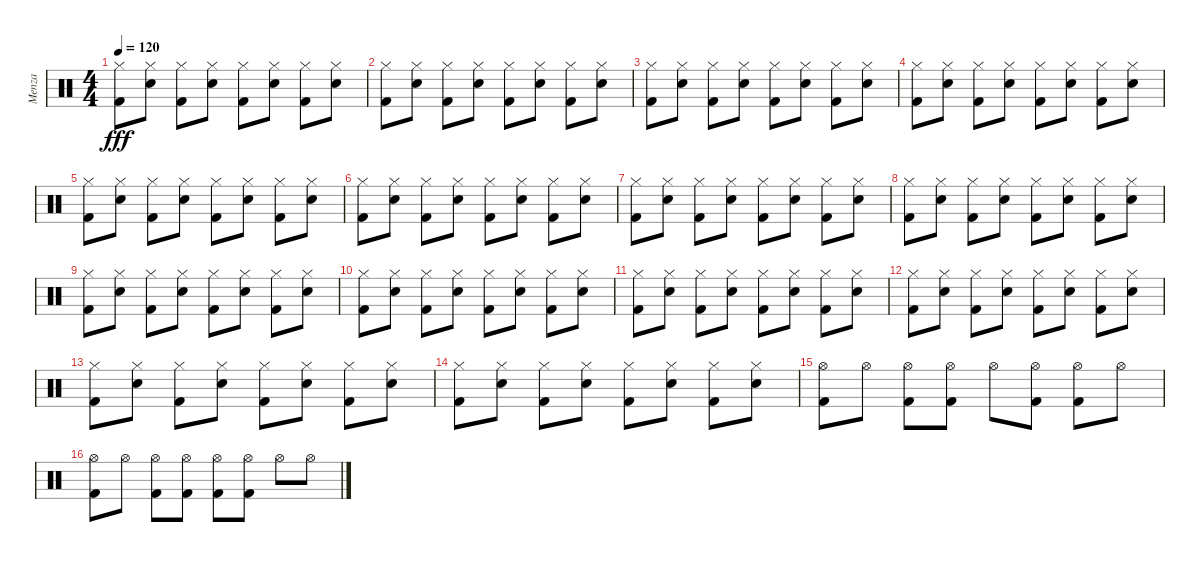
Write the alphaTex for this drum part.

\track ("Menza" "Menza") {instrument percussion}
\staff {score}
\articulation defaults
\ts (4 4)
\tempo 120
\clef neutral
\ks c
("Hi-Hat (closed)" "Kick (hit) 2").8{dy fff} ("Hi-Hat (closed)" "Snare (hit) 2").8 ("Hi-Hat (closed)" "Kick (hit) 2").8 ("Hi-Hat (closed)" "Snare (hit) 2").8 ("Hi-Hat (closed)" "Kick (hit) 2").8 ("Hi-Hat (closed)" "Snare (hit) 2").8 ("Hi-Hat (closed)" "Kick (hit) 2").8 ("Hi-Hat (closed)" "Snare (hit) 2").8 |
("Hi-Hat (closed)" "Kick (hit) 2").8 ("Hi-Hat (closed)" "Snare (hit) 2").8 ("Hi-Hat (closed)" "Kick (hit) 2").8 ("Hi-Hat (closed)" "Snare (hit) 2").8 ("Hi-Hat (closed)" "Kick (hit) 2").8 ("Hi-Hat (closed)" "Snare (hit) 2").8 ("Hi-Hat (closed)" "Kick (hit) 2").8 ("Hi-Hat (closed)" "Snare (hit) 2").8 |
("Hi-Hat (closed)" "Kick (hit) 2").8 ("Hi-Hat (closed)" "Snare (hit) 2").8 ("Hi-Hat (closed)" "Kick (hit) 2").8 ("Hi-Hat (closed)" "Snare (hit) 2").8 ("Hi-Hat (closed)" "Kick (hit) 2").8 ("Hi-Hat (closed)" "Snare (hit) 2").8 ("Hi-Hat (closed)" "Kick (hit) 2").8 ("Hi-Hat (closed)" "Snare (hit) 2").8 |
("Hi-Hat (closed)" "Kick (hit) 2").8 ("Hi-Hat (closed)" "Snare (hit) 2").8 ("Hi-Hat (closed)" "Kick (hit) 2").8 ("Hi-Hat (closed)" "Snare (hit) 2").8 ("Hi-Hat (closed)" "Kick (hit) 2").8 ("Hi-Hat (closed)" "Snare (hit) 2").8 ("Hi-Hat (closed)" "Kick (hit) 2").8 ("Hi-Hat (closed)" "Snare (hit) 2").8 |
("Hi-Hat (closed)" "Kick (hit) 2").8 ("Hi-Hat (closed)" "Snare (hit) 2").8 ("Hi-Hat (closed)" "Kick (hit) 2").8 ("Hi-Hat (closed)" "Snare (hit) 2").8 ("Hi-Hat (closed)" "Kick (hit) 2").8 ("Hi-Hat (closed)" "Snare (hit) 2").8 ("Hi-Hat (closed)" "Kick (hit) 2").8 ("Hi-Hat (closed)" "Snare (hit) 2").8 |
("Hi-Hat (closed)" "Kick (hit) 2").8 ("Hi-Hat (closed)" "Snare (hit) 2").8 ("Hi-Hat (closed)" "Kick (hit) 2").8 ("Hi-Hat (closed)" "Snare (hit) 2").8 ("Hi-Hat (closed)" "Kick (hit) 2").8 ("Hi-Hat (closed)" "Snare (hit) 2").8 ("Hi-Hat (closed)" "Kick (hit) 2").8 ("Hi-Hat (closed)" "Snare (hit) 2").8 |
("Hi-Hat (closed)" "Kick (hit) 2").8 ("Hi-Hat (closed)" "Snare (hit) 2").8 ("Hi-Hat (closed)" "Kick (hit) 2").8 ("Hi-Hat (closed)" "Snare (hit) 2").8 ("Hi-Hat (closed)" "Kick (hit) 2").8 ("Hi-Hat (closed)" "Snare (hit) 2").8 ("Hi-Hat (closed)" "Kick (hit) 2").8 ("Hi-Hat (closed)" "Snare (hit) 2").8 |
("Hi-Hat (closed)" "Kick (hit) 2").8 ("Hi-Hat (closed)" "Snare (hit) 2").8 ("Hi-Hat (closed)" "Kick (hit) 2").8 ("Hi-Hat (closed)" "Snare (hit) 2").8 ("Hi-Hat (closed)" "Kick (hit) 2").8 ("Hi-Hat (closed)" "Snare (hit) 2").8 ("Hi-Hat (closed)" "Kick (hit) 2").8 ("Hi-Hat (closed)" "Snare (hit) 2").8 |
("Hi-Hat (closed)" "Kick (hit) 2").8 ("Hi-Hat (closed)" "Snare (hit) 2").8 ("Hi-Hat (closed)" "Kick (hit) 2").8 ("Hi-Hat (closed)" "Snare (hit) 2").8 ("Hi-Hat (closed)" "Kick (hit) 2").8 ("Hi-Hat (closed)" "Snare (hit) 2").8 ("Hi-Hat (closed)" "Kick (hit) 2").8 ("Hi-Hat (closed)" "Snare (hit) 2").8 |
("Hi-Hat (closed)" "Kick (hit) 2").8 ("Hi-Hat (closed)" "Snare (hit) 2").8 ("Hi-Hat (closed)" "Kick (hit) 2").8 ("Hi-Hat (closed)" "Snare (hit) 2").8 ("Hi-Hat (closed)" "Kick (hit) 2").8 ("Hi-Hat (closed)" "Snare (hit) 2").8 ("Hi-Hat (closed)" "Kick (hit) 2").8 ("Hi-Hat (closed)" "Snare (hit) 2").8 |
("Hi-Hat (closed)" "Kick (hit) 2").8 ("Hi-Hat (closed)" "Snare (hit) 2").8 ("Hi-Hat (closed)" "Kick (hit) 2").8 ("Hi-Hat (closed)" "Snare (hit) 2").8 ("Hi-Hat (closed)" "Kick (hit) 2").8 ("Hi-Hat (closed)" "Snare (hit) 2").8 ("Hi-Hat (closed)" "Kick (hit) 2").8 ("Hi-Hat (closed)" "Snare (hit) 2").8 |
("Hi-Hat (closed)" "Kick (hit) 2").8 ("Hi-Hat (closed)" "Snare (hit) 2").8 ("Hi-Hat (closed)" "Kick (hit) 2").8 ("Hi-Hat (closed)" "Snare (hit) 2").8 ("Hi-Hat (closed)" "Kick (hit) 2").8 ("Hi-Hat (closed)" "Snare (hit) 2").8 ("Hi-Hat (closed)" "Kick (hit) 2").8 ("Hi-Hat (closed)" "Snare (hit) 2").8 |
("Hi-Hat (closed)" "Kick (hit) 2").8 ("Hi-Hat (closed)" "Snare (hit) 2").8 ("Hi-Hat (closed)" "Kick (hit) 2").8 ("Hi-Hat (closed)" "Snare (hit) 2").8 ("Hi-Hat (closed)" "Kick (hit) 2").8 ("Hi-Hat (closed)" "Snare (hit) 2").8 ("Hi-Hat (closed)" "Kick (hit) 2").8 ("Hi-Hat (closed)" "Snare (hit) 2").8 |
("Hi-Hat (closed)" "Kick (hit) 2").8 ("Hi-Hat (closed)" "Snare (hit) 2").8 ("Hi-Hat (closed)" "Kick (hit) 2").8 ("Hi-Hat (closed)" "Snare (hit) 2").8 ("Hi-Hat (closed)" "Kick (hit) 2").8 ("Hi-Hat (closed)" "Snare (hit) 2").8 ("Hi-Hat (closed)" "Kick (hit) 2").8 ("Hi-Hat (closed)" "Snare (hit) 2").8 |
("Hi-Hat (open)" "Kick (hit) 2").8 "Hi-Hat (open)".8 ("Hi-Hat (open)" "Kick (hit) 2").8 ("Hi-Hat (open)" "Kick (hit) 2").8 "Hi-Hat (open)".8 ("Hi-Hat (open)" "Kick (hit) 2").8 ("Hi-Hat (open)" "Kick (hit) 2").8 "Hi-Hat (open)".8 |
("Hi-Hat (open)" "Kick (hit) 2").8 "Hi-Hat (open)".8 ("Hi-Hat (open)" "Kick (hit) 2").8 ("Hi-Hat (open)" "Kick (hit) 2").8 ("Hi-Hat (open)" "Kick (hit) 2").8 ("Hi-Hat (open)" "Kick (hit) 2").8 "Hi-Hat (open)".8 "Hi-Hat (open)".8
